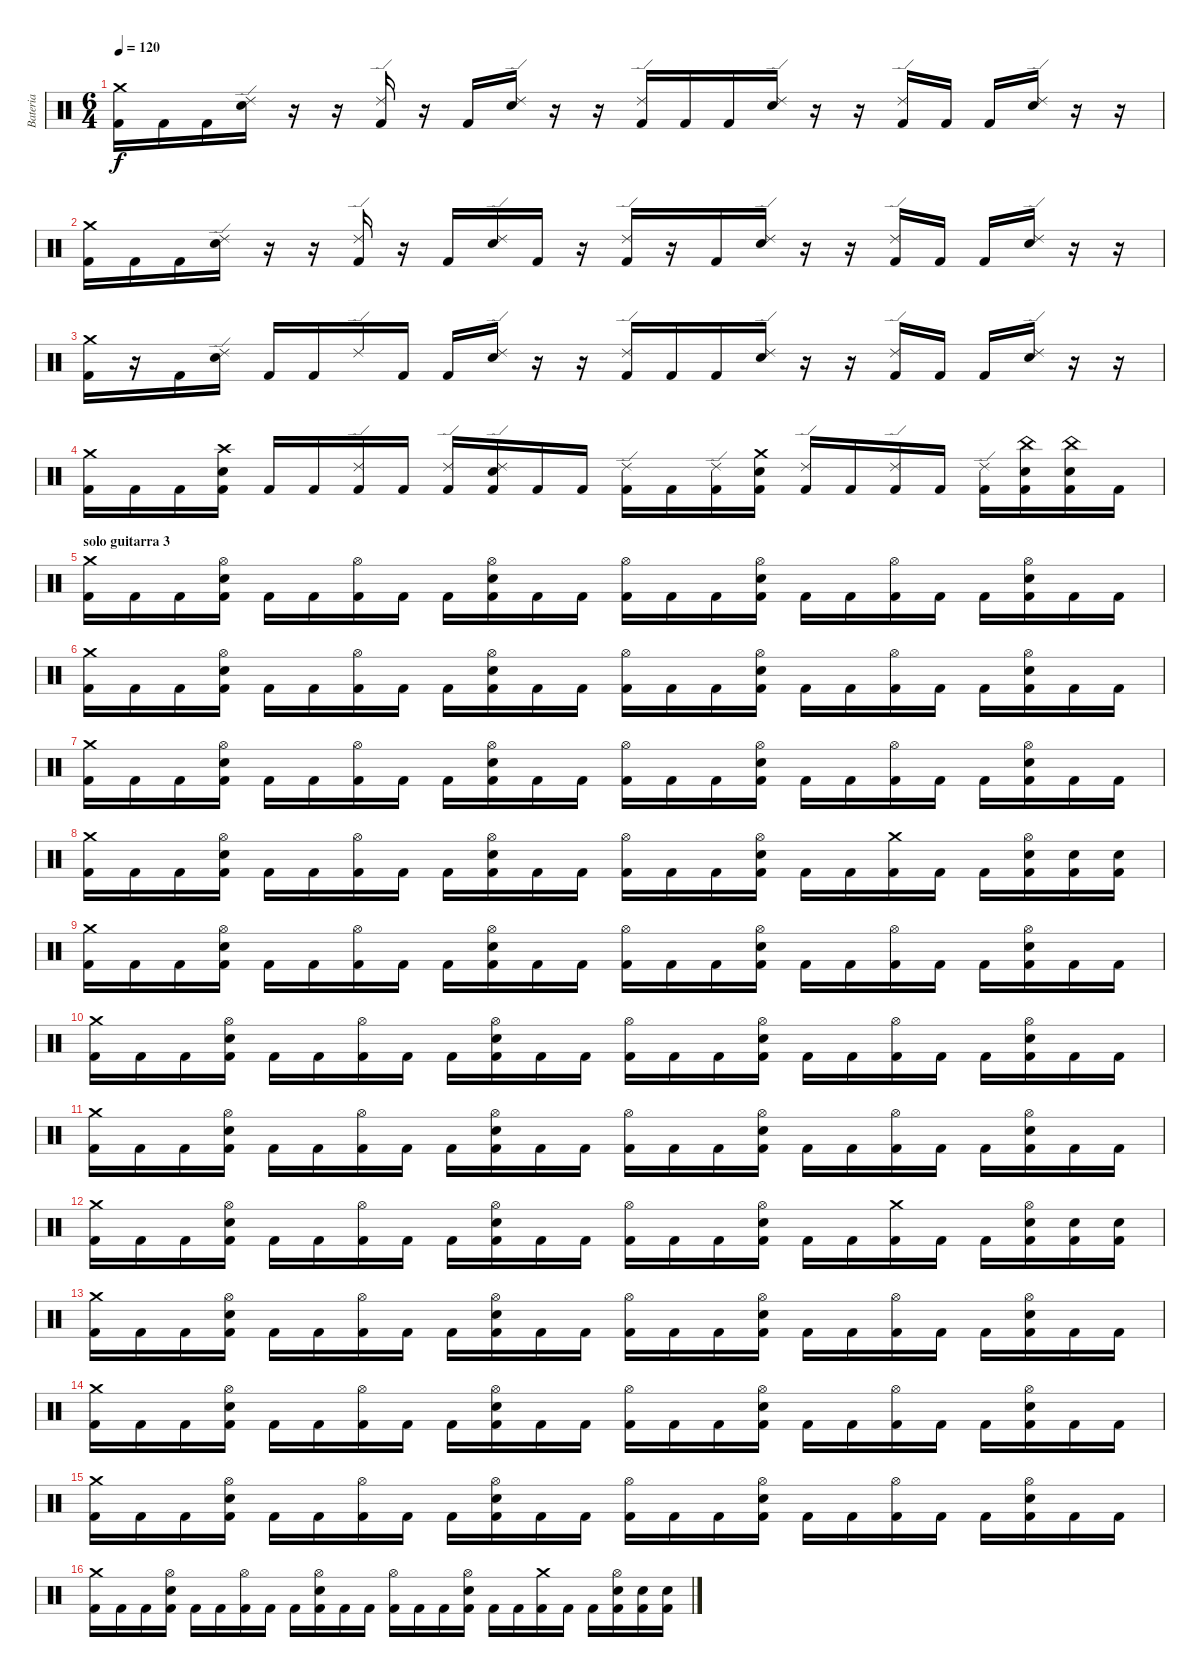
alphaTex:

\track ("Bateria" "Bateria") {instrument percussion}
\staff {score}
\articulation defaults
\ts (6 4)
\tempo 120
\clef neutral
\ks c
("Crash medium (hit)" "Kick (hit) 2").16{dy f} "Kick (hit) 2".16 "Kick (hit) 2".16 ("Ride (edge) 2" "Electric Snare (hit)").16 r.16 r.16 ("Ride (edge) 2" "Kick (hit) 2").16 r.16 "Kick (hit) 2".16 ("Ride (edge) 2" "Electric Snare (hit)").16 r.16 r.16 ("Ride (edge) 2" "Kick (hit) 2").16 "Kick (hit) 2".16 "Kick (hit) 2".16 ("Ride (edge) 2" "Electric Snare (hit)").16 r.16 r.16 ("Ride (edge) 2" "Kick (hit) 2").16 "Kick (hit) 2".16 "Kick (hit) 2".16 ("Ride (edge) 2" "Electric Snare (hit)").16 r.16 r.16 |
("Crash medium (hit)" "Kick (hit) 2").16 "Kick (hit) 2".16 "Kick (hit) 2".16 ("Ride (edge) 2" "Electric Snare (hit)").16 r.16 r.16 ("Ride (edge) 2" "Kick (hit) 2").16 r.16 "Kick (hit) 2".16 ("Ride (edge) 2" "Electric Snare (hit)").16 "Kick (hit) 2".16 r.16 ("Ride (edge) 2" "Kick (hit) 2").16 r.16 "Kick (hit) 2".16 ("Ride (edge) 2" "Electric Snare (hit)").16 r.16 r.16 ("Ride (edge) 2" "Kick (hit) 2").16 "Kick (hit) 2".16 "Kick (hit) 2".16 ("Ride (edge) 2" "Electric Snare (hit)").16 r.16 r.16 |
("Crash medium (hit)" "Kick (hit) 2").16 r.16 "Kick (hit) 2".16 ("Ride (edge) 2" "Electric Snare (hit)").16 "Kick (hit) 2".16 "Kick (hit) 2".16 "Ride (edge) 2".16 "Kick (hit) 2".16 "Kick (hit) 2".16 ("Ride (edge) 2" "Electric Snare (hit)").16 r.16 r.16 ("Ride (edge) 2" "Kick (hit) 2").16 "Kick (hit) 2".16 "Kick (hit) 2".16 ("Ride (edge) 2" "Electric Snare (hit)").16 r.16 r.16 ("Ride (edge) 2" "Kick (hit) 2").16 "Kick (hit) 2".16 "Kick (hit) 2".16 ("Ride (edge) 2" "Electric Snare (hit)").16 r.16 r.16 |
("Crash medium (hit)" "Kick (hit) 2").16 "Kick (hit) 2".16 "Kick (hit) 2".16 ("Crash high (hit)" "Electric Snare (hit)" "Kick (hit) 2").16 "Kick (hit) 2".16 "Kick (hit) 2".16 ("Ride (edge) 2" "Kick (hit) 2").16 "Kick (hit) 2".16 ("Ride (edge) 2" "Kick (hit) 2").16 ("Ride (edge) 2" "Electric Snare (hit)" "Kick (hit) 2").16 "Kick (hit) 2".16 "Kick (hit) 2".16 ("Ride (edge) 2" "Kick (hit) 2").16 "Kick (hit) 2".16 ("Ride (edge) 2" "Kick (hit) 2").16 ("Crash medium (hit)" "Electric Snare (hit)" "Kick (hit) 2").16 ("Ride (edge) 2" "Kick (hit) 2").16 "Kick (hit) 2".16 ("Ride (edge) 2" "Kick (hit) 2").16 "Kick (hit) 2".16 ("Ride (edge) 2" "Kick (hit) 2").16 ("China (hit)" "Electric Snare (hit)" "Kick (hit) 2").16 ("China (hit)" "Electric Snare (hit)" "Kick (hit) 2").16 "Kick (hit) 2".16 |
\section ("" "solo guitarra 3")
("Crash medium (hit)" "Kick (hit) 2").16 "Kick (hit) 2".16 "Kick (hit) 2".16 ("Hi-Hat (open)" "Electric Snare (hit)" "Kick (hit) 2").16 "Kick (hit) 2".16 "Kick (hit) 2".16 ("Hi-Hat (open)" "Kick (hit) 2").16 "Kick (hit) 2".16 "Kick (hit) 2".16 ("Hi-Hat (open)" "Electric Snare (hit)" "Kick (hit) 2").16 "Kick (hit) 2".16 "Kick (hit) 2".16 ("Hi-Hat (open)" "Kick (hit) 2").16 "Kick (hit) 2".16 "Kick (hit) 2".16 ("Hi-Hat (open)" "Electric Snare (hit)" "Kick (hit) 2").16 "Kick (hit) 2".16 "Kick (hit) 2".16 ("Hi-Hat (open)" "Kick (hit) 2").16 "Kick (hit) 2".16 "Kick (hit) 2".16 ("Hi-Hat (open)" "Electric Snare (hit)" "Kick (hit) 2").16 "Kick (hit) 2".16 "Kick (hit) 2".16 |
("Crash medium (hit)" "Kick (hit) 2").16 "Kick (hit) 2".16 "Kick (hit) 2".16 ("Hi-Hat (open)" "Electric Snare (hit)" "Kick (hit) 2").16 "Kick (hit) 2".16 "Kick (hit) 2".16 ("Hi-Hat (open)" "Kick (hit) 2").16 "Kick (hit) 2".16 "Kick (hit) 2".16 ("Hi-Hat (open)" "Electric Snare (hit)" "Kick (hit) 2").16 "Kick (hit) 2".16 "Kick (hit) 2".16 ("Hi-Hat (open)" "Kick (hit) 2").16 "Kick (hit) 2".16 "Kick (hit) 2".16 ("Hi-Hat (open)" "Electric Snare (hit)" "Kick (hit) 2").16 "Kick (hit) 2".16 "Kick (hit) 2".16 ("Hi-Hat (open)" "Kick (hit) 2").16 "Kick (hit) 2".16 "Kick (hit) 2".16 ("Hi-Hat (open)" "Electric Snare (hit)" "Kick (hit) 2").16 "Kick (hit) 2".16 "Kick (hit) 2".16 |
("Crash medium (hit)" "Kick (hit) 2").16 "Kick (hit) 2".16 "Kick (hit) 2".16 ("Hi-Hat (open)" "Electric Snare (hit)" "Kick (hit) 2").16 "Kick (hit) 2".16 "Kick (hit) 2".16 ("Hi-Hat (open)" "Kick (hit) 2").16 "Kick (hit) 2".16 "Kick (hit) 2".16 ("Hi-Hat (open)" "Electric Snare (hit)" "Kick (hit) 2").16 "Kick (hit) 2".16 "Kick (hit) 2".16 ("Hi-Hat (open)" "Kick (hit) 2").16 "Kick (hit) 2".16 "Kick (hit) 2".16 ("Hi-Hat (open)" "Electric Snare (hit)" "Kick (hit) 2").16 "Kick (hit) 2".16 "Kick (hit) 2".16 ("Hi-Hat (open)" "Kick (hit) 2").16 "Kick (hit) 2".16 "Kick (hit) 2".16 ("Hi-Hat (open)" "Electric Snare (hit)" "Kick (hit) 2").16 "Kick (hit) 2".16 "Kick (hit) 2".16 |
("Crash medium (hit)" "Kick (hit) 2").16 "Kick (hit) 2".16 "Kick (hit) 2".16 ("Hi-Hat (open)" "Electric Snare (hit)" "Kick (hit) 2").16 "Kick (hit) 2".16 "Kick (hit) 2".16 ("Hi-Hat (open)" "Kick (hit) 2").16 "Kick (hit) 2".16 "Kick (hit) 2".16 ("Hi-Hat (open)" "Electric Snare (hit)" "Kick (hit) 2").16 "Kick (hit) 2".16 "Kick (hit) 2".16 ("Hi-Hat (open)" "Kick (hit) 2").16 "Kick (hit) 2".16 "Kick (hit) 2".16 ("Hi-Hat (open)" "Electric Snare (hit)" "Kick (hit) 2").16 "Kick (hit) 2".16 "Kick (hit) 2".16 ("Crash medium (hit)" "Kick (hit) 2").16 "Kick (hit) 2".16 "Kick (hit) 2".16 ("Hi-Hat (open)" "Electric Snare (hit)" "Kick (hit) 2").16 ("Electric Snare (hit)" "Kick (hit) 2").16 ("Electric Snare (hit)" "Kick (hit) 2").16 |
("Crash medium (hit)" "Kick (hit) 2").16 "Kick (hit) 2".16 "Kick (hit) 2".16 ("Hi-Hat (open)" "Electric Snare (hit)" "Kick (hit) 2").16 "Kick (hit) 2".16 "Kick (hit) 2".16 ("Hi-Hat (open)" "Kick (hit) 2").16 "Kick (hit) 2".16 "Kick (hit) 2".16 ("Hi-Hat (open)" "Electric Snare (hit)" "Kick (hit) 2").16 "Kick (hit) 2".16 "Kick (hit) 2".16 ("Hi-Hat (open)" "Kick (hit) 2").16 "Kick (hit) 2".16 "Kick (hit) 2".16 ("Hi-Hat (open)" "Electric Snare (hit)" "Kick (hit) 2").16 "Kick (hit) 2".16 "Kick (hit) 2".16 ("Hi-Hat (open)" "Kick (hit) 2").16 "Kick (hit) 2".16 "Kick (hit) 2".16 ("Hi-Hat (open)" "Electric Snare (hit)" "Kick (hit) 2").16 "Kick (hit) 2".16 "Kick (hit) 2".16 |
("Crash medium (hit)" "Kick (hit) 2").16 "Kick (hit) 2".16 "Kick (hit) 2".16 ("Hi-Hat (open)" "Electric Snare (hit)" "Kick (hit) 2").16 "Kick (hit) 2".16 "Kick (hit) 2".16 ("Hi-Hat (open)" "Kick (hit) 2").16 "Kick (hit) 2".16 "Kick (hit) 2".16 ("Hi-Hat (open)" "Electric Snare (hit)" "Kick (hit) 2").16 "Kick (hit) 2".16 "Kick (hit) 2".16 ("Hi-Hat (open)" "Kick (hit) 2").16 "Kick (hit) 2".16 "Kick (hit) 2".16 ("Hi-Hat (open)" "Electric Snare (hit)" "Kick (hit) 2").16 "Kick (hit) 2".16 "Kick (hit) 2".16 ("Hi-Hat (open)" "Kick (hit) 2").16 "Kick (hit) 2".16 "Kick (hit) 2".16 ("Hi-Hat (open)" "Electric Snare (hit)" "Kick (hit) 2").16 "Kick (hit) 2".16 "Kick (hit) 2".16 |
("Crash medium (hit)" "Kick (hit) 2").16 "Kick (hit) 2".16 "Kick (hit) 2".16 ("Hi-Hat (open)" "Electric Snare (hit)" "Kick (hit) 2").16 "Kick (hit) 2".16 "Kick (hit) 2".16 ("Hi-Hat (open)" "Kick (hit) 2").16 "Kick (hit) 2".16 "Kick (hit) 2".16 ("Hi-Hat (open)" "Electric Snare (hit)" "Kick (hit) 2").16 "Kick (hit) 2".16 "Kick (hit) 2".16 ("Hi-Hat (open)" "Kick (hit) 2").16 "Kick (hit) 2".16 "Kick (hit) 2".16 ("Hi-Hat (open)" "Electric Snare (hit)" "Kick (hit) 2").16 "Kick (hit) 2".16 "Kick (hit) 2".16 ("Hi-Hat (open)" "Kick (hit) 2").16 "Kick (hit) 2".16 "Kick (hit) 2".16 ("Hi-Hat (open)" "Electric Snare (hit)" "Kick (hit) 2").16 "Kick (hit) 2".16 "Kick (hit) 2".16 |
("Crash medium (hit)" "Kick (hit) 2").16 "Kick (hit) 2".16 "Kick (hit) 2".16 ("Hi-Hat (open)" "Electric Snare (hit)" "Kick (hit) 2").16 "Kick (hit) 2".16 "Kick (hit) 2".16 ("Hi-Hat (open)" "Kick (hit) 2").16 "Kick (hit) 2".16 "Kick (hit) 2".16 ("Hi-Hat (open)" "Electric Snare (hit)" "Kick (hit) 2").16 "Kick (hit) 2".16 "Kick (hit) 2".16 ("Hi-Hat (open)" "Kick (hit) 2").16 "Kick (hit) 2".16 "Kick (hit) 2".16 ("Hi-Hat (open)" "Electric Snare (hit)" "Kick (hit) 2").16 "Kick (hit) 2".16 "Kick (hit) 2".16 ("Crash medium (hit)" "Kick (hit) 2").16 "Kick (hit) 2".16 "Kick (hit) 2".16 ("Hi-Hat (open)" "Electric Snare (hit)" "Kick (hit) 2").16 ("Electric Snare (hit)" "Kick (hit) 2").16 ("Electric Snare (hit)" "Kick (hit) 2").16 |
("Crash medium (hit)" "Kick (hit) 2").16 "Kick (hit) 2".16 "Kick (hit) 2".16 ("Hi-Hat (open)" "Electric Snare (hit)" "Kick (hit) 2").16 "Kick (hit) 2".16 "Kick (hit) 2".16 ("Hi-Hat (open)" "Kick (hit) 2").16 "Kick (hit) 2".16 "Kick (hit) 2".16 ("Hi-Hat (open)" "Electric Snare (hit)" "Kick (hit) 2").16 "Kick (hit) 2".16 "Kick (hit) 2".16 ("Hi-Hat (open)" "Kick (hit) 2").16 "Kick (hit) 2".16 "Kick (hit) 2".16 ("Hi-Hat (open)" "Electric Snare (hit)" "Kick (hit) 2").16 "Kick (hit) 2".16 "Kick (hit) 2".16 ("Hi-Hat (open)" "Kick (hit) 2").16 "Kick (hit) 2".16 "Kick (hit) 2".16 ("Hi-Hat (open)" "Electric Snare (hit)" "Kick (hit) 2").16 "Kick (hit) 2".16 "Kick (hit) 2".16 |
("Crash medium (hit)" "Kick (hit) 2").16 "Kick (hit) 2".16 "Kick (hit) 2".16 ("Hi-Hat (open)" "Electric Snare (hit)" "Kick (hit) 2").16 "Kick (hit) 2".16 "Kick (hit) 2".16 ("Hi-Hat (open)" "Kick (hit) 2").16 "Kick (hit) 2".16 "Kick (hit) 2".16 ("Hi-Hat (open)" "Electric Snare (hit)" "Kick (hit) 2").16 "Kick (hit) 2".16 "Kick (hit) 2".16 ("Hi-Hat (open)" "Kick (hit) 2").16 "Kick (hit) 2".16 "Kick (hit) 2".16 ("Hi-Hat (open)" "Electric Snare (hit)" "Kick (hit) 2").16 "Kick (hit) 2".16 "Kick (hit) 2".16 ("Hi-Hat (open)" "Kick (hit) 2").16 "Kick (hit) 2".16 "Kick (hit) 2".16 ("Hi-Hat (open)" "Electric Snare (hit)" "Kick (hit) 2").16 "Kick (hit) 2".16 "Kick (hit) 2".16 |
("Crash medium (hit)" "Kick (hit) 2").16 "Kick (hit) 2".16 "Kick (hit) 2".16 ("Hi-Hat (open)" "Electric Snare (hit)" "Kick (hit) 2").16 "Kick (hit) 2".16 "Kick (hit) 2".16 ("Hi-Hat (open)" "Kick (hit) 2").16 "Kick (hit) 2".16 "Kick (hit) 2".16 ("Hi-Hat (open)" "Electric Snare (hit)" "Kick (hit) 2").16 "Kick (hit) 2".16 "Kick (hit) 2".16 ("Hi-Hat (open)" "Kick (hit) 2").16 "Kick (hit) 2".16 "Kick (hit) 2".16 ("Hi-Hat (open)" "Electric Snare (hit)" "Kick (hit) 2").16 "Kick (hit) 2".16 "Kick (hit) 2".16 ("Hi-Hat (open)" "Kick (hit) 2").16 "Kick (hit) 2".16 "Kick (hit) 2".16 ("Hi-Hat (open)" "Electric Snare (hit)" "Kick (hit) 2").16 "Kick (hit) 2".16 "Kick (hit) 2".16 |
("Crash medium (hit)" "Kick (hit) 2").16 "Kick (hit) 2".16 "Kick (hit) 2".16 ("Hi-Hat (open)" "Electric Snare (hit)" "Kick (hit) 2").16 "Kick (hit) 2".16 "Kick (hit) 2".16 ("Hi-Hat (open)" "Kick (hit) 2").16 "Kick (hit) 2".16 "Kick (hit) 2".16 ("Hi-Hat (open)" "Electric Snare (hit)" "Kick (hit) 2").16 "Kick (hit) 2".16 "Kick (hit) 2".16 ("Hi-Hat (open)" "Kick (hit) 2").16 "Kick (hit) 2".16 "Kick (hit) 2".16 ("Hi-Hat (open)" "Electric Snare (hit)" "Kick (hit) 2").16 "Kick (hit) 2".16 "Kick (hit) 2".16 ("Crash medium (hit)" "Kick (hit) 2").16 "Kick (hit) 2".16 "Kick (hit) 2".16 ("Hi-Hat (open)" "Electric Snare (hit)" "Kick (hit) 2").16 ("Electric Snare (hit)" "Kick (hit) 2").16 ("Electric Snare (hit)" "Kick (hit) 2").16
